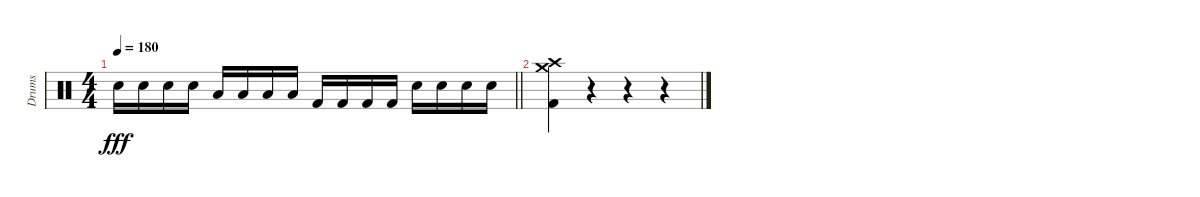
\track ("Drums" "Drums") {instrument percussion}
\staff {score}
\articulation defaults
\ts (4 4)
\tempo 180
\clef neutral
\barLineRight lightlight
\ks c "Electric Snare (hit)".16{dy fff} "Electric Snare (hit)".16 "Electric Snare (hit)".16 "Electric Snare (hit)".16 "Low Tom (hit)".16 "Low Tom (hit)".16 "Low Tom (hit)".16 "Low Tom (hit)".16 "Kick (hit) 2".16 "Kick (hit) 2".16 "Kick (hit) 2".16 "Kick (hit) 2".16 "Electric Snare (hit)".16 "Electric Snare (hit)".16 "Electric Snare (hit)".16 "Electric Snare (hit)".16
|
("Crash high (hit)" "Crash medium (hit)" "Kick (hit) 2").4 r.4 r.4 r.4
